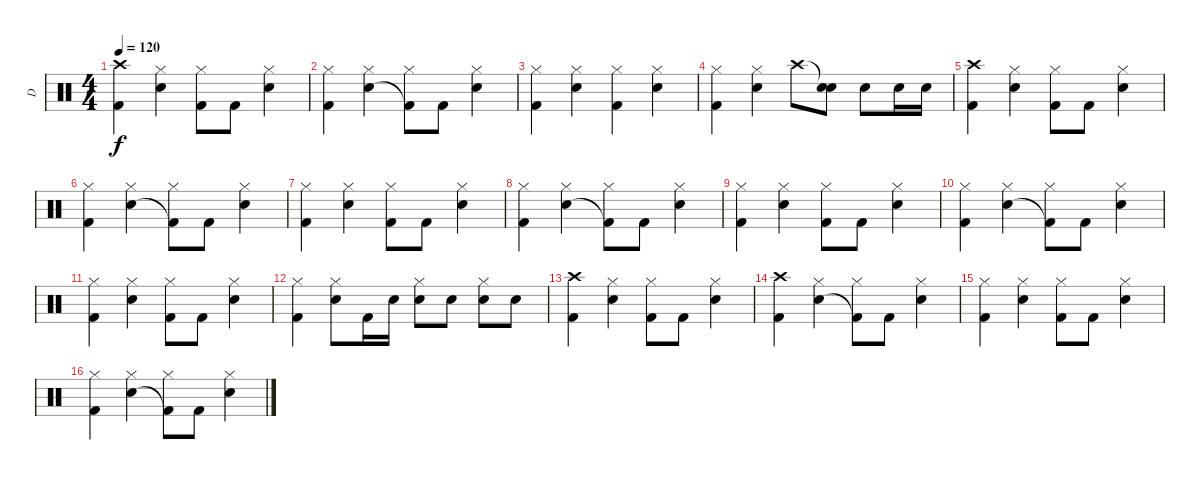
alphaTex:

\track ("D" "D") {instrument percussion}
\staff {score}
\articulation defaults
\ts (4 4)
\tempo 120
\clef neutral
\ks c
("Crash high (hit)" "Kick (hit) 2").4{dy f} ("Hi-Hat (closed)" "Snare (hit) 2").4 ("Hi-Hat (closed)" "Kick (hit) 2").8 "Kick (hit) 2".8 ("Hi-Hat (closed)" "Snare (hit) 2").4 |
("Hi-Hat (closed)" "Kick (hit) 2").4 ("Hi-Hat (closed)" "Snare (hit) 2").4 ("Hi-Hat (closed)" "Kick (hit) 2"{t}).8 "Kick (hit) 2".8 ("Hi-Hat (closed)" "Snare (hit) 2").4 |
("Hi-Hat (closed)" "Kick (hit) 2").4 ("Hi-Hat (closed)" "Snare (hit) 2").4 ("Hi-Hat (closed)" "Kick (hit) 2").4 ("Hi-Hat (closed)" "Snare (hit) 2").4 |
("Hi-Hat (closed)" "Kick (hit) 2").4 ("Hi-Hat (closed)" "Snare (hit) 2").4 "Crash high (hit)".8 ("Snare (hit)"{t} "Snare (hit) 2").8 "Snare (hit) 2".8 "Snare (hit) 2".16 "Snare (hit) 2".16 |
("Crash high (hit)" "Kick (hit) 2").4 ("Hi-Hat (closed)" "Snare (hit) 2").4 ("Hi-Hat (closed)" "Kick (hit) 2").8 "Kick (hit) 2".8 ("Hi-Hat (closed)" "Snare (hit) 2").4 |
("Hi-Hat (closed)" "Kick (hit) 2").4 ("Hi-Hat (closed)" "Snare (hit) 2").4 ("Hi-Hat (closed)" "Kick (hit) 2"{t}).8 "Kick (hit) 2".8 ("Hi-Hat (closed)" "Snare (hit) 2").4 |
("Hi-Hat (closed)" "Kick (hit) 2").4 ("Hi-Hat (closed)" "Snare (hit) 2").4 ("Hi-Hat (closed)" "Kick (hit) 2").8 "Kick (hit) 2".8 ("Hi-Hat (closed)" "Snare (hit) 2").4 |
("Hi-Hat (closed)" "Kick (hit) 2").4 ("Hi-Hat (closed)" "Snare (hit) 2").4 ("Hi-Hat (closed)" "Kick (hit) 2"{t}).8 "Kick (hit) 2".8 ("Hi-Hat (closed)" "Snare (hit) 2").4 |
("Hi-Hat (closed)" "Kick (hit) 2").4 ("Hi-Hat (closed)" "Snare (hit) 2").4 ("Hi-Hat (closed)" "Kick (hit) 2").8 "Kick (hit) 2".8 ("Hi-Hat (closed)" "Snare (hit) 2").4 |
("Hi-Hat (closed)" "Kick (hit) 2").4 ("Hi-Hat (closed)" "Snare (hit) 2").4 ("Hi-Hat (closed)" "Kick (hit) 2"{t}).8 "Kick (hit) 2".8 ("Hi-Hat (closed)" "Snare (hit) 2").4 |
("Hi-Hat (closed)" "Kick (hit) 2").4 ("Hi-Hat (closed)" "Snare (hit) 2").4 ("Hi-Hat (closed)" "Kick (hit) 2").8 "Kick (hit) 2".8 ("Hi-Hat (closed)" "Snare (hit) 2").4 |
("Hi-Hat (closed)" "Kick (hit) 2").4 ("Hi-Hat (closed)" "Snare (hit) 2").8 "Kick (hit) 2".16 "Snare (hit) 2".16 ("Hi-Hat (closed)" "Snare (hit) 2").8 "Snare (hit) 2".8 ("Hi-Hat (closed)" "Snare (hit) 2").8 "Snare (hit) 2".8 |
("Crash high (hit)" "Kick (hit) 2").4 ("Hi-Hat (closed)" "Snare (hit) 2").4 ("Hi-Hat (closed)" "Kick (hit) 2").8 "Kick (hit) 2".8 ("Hi-Hat (closed)" "Snare (hit) 2").4 |
("Crash high (hit)" "Kick (hit) 2").4 ("Hi-Hat (closed)" "Snare (hit) 2").4 ("Hi-Hat (closed)" "Kick (hit) 2"{t}).8 "Kick (hit) 2".8 ("Hi-Hat (closed)" "Snare (hit) 2").4 |
("Hi-Hat (closed)" "Kick (hit) 2").4 ("Hi-Hat (closed)" "Snare (hit) 2").4 ("Hi-Hat (closed)" "Kick (hit) 2").8 "Kick (hit) 2".8 ("Hi-Hat (closed)" "Snare (hit) 2").4 |
("Hi-Hat (closed)" "Kick (hit) 2").4 ("Hi-Hat (closed)" "Snare (hit) 2").4 ("Hi-Hat (closed)" "Kick (hit) 2"{t}).8 "Kick (hit) 2".8 ("Hi-Hat (closed)" "Snare (hit) 2").4
